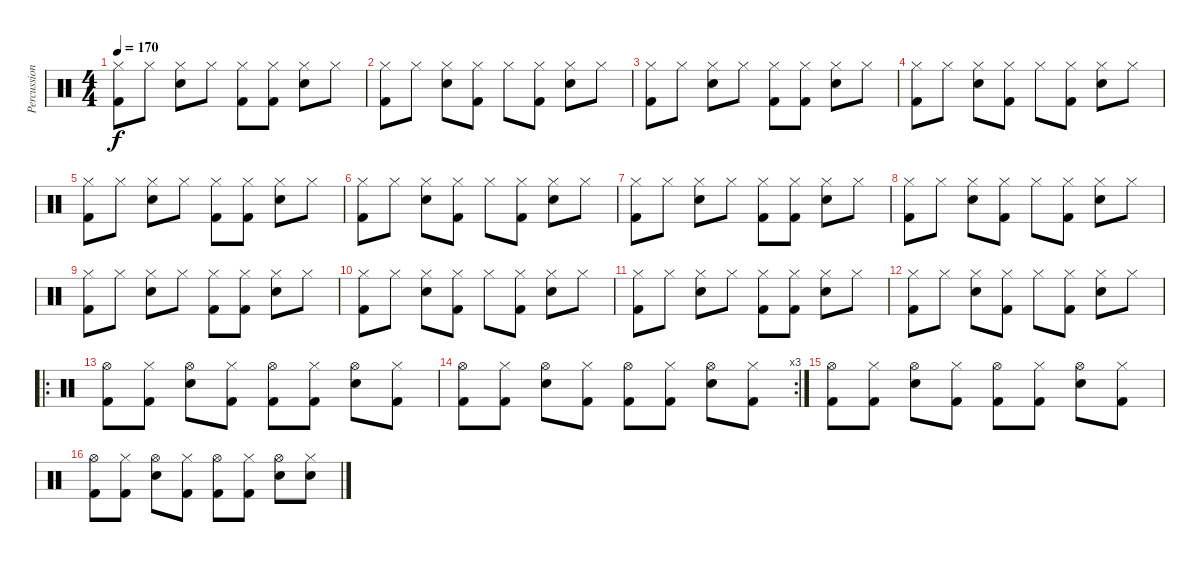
\track ("Percussion" "Percussion") {instrument percussion}
\staff {score}
\articulation defaults
\ts (4 4)
\tempo 170
\clef neutral
\ks c
("Hi-Hat (closed)" "Kick (hit) 2").8{dy f} "Hi-Hat (closed)".8 ("Hi-Hat (closed)" "Electric Snare (hit)").8 "Hi-Hat (closed)".8 ("Hi-Hat (closed)" "Kick (hit) 2").8 ("Hi-Hat (closed)" "Kick (hit) 2").8 ("Hi-Hat (closed)" "Electric Snare (hit)").8 "Hi-Hat (closed)".8 |
("Hi-Hat (closed)" "Kick (hit) 2").8 "Hi-Hat (closed)".8 ("Hi-Hat (closed)" "Electric Snare (hit)").8 ("Hi-Hat (closed)" "Kick (hit) 2").8 "Hi-Hat (closed)".8 ("Hi-Hat (closed)" "Kick (hit) 2").8 ("Hi-Hat (closed)" "Electric Snare (hit)").8 "Hi-Hat (closed)".8 |
("Hi-Hat (closed)" "Kick (hit) 2").8 "Hi-Hat (closed)".8 ("Hi-Hat (closed)" "Electric Snare (hit)").8 "Hi-Hat (closed)".8 ("Hi-Hat (closed)" "Kick (hit) 2").8 ("Hi-Hat (closed)" "Kick (hit) 2").8 ("Hi-Hat (closed)" "Electric Snare (hit)").8 "Hi-Hat (closed)".8 |
("Hi-Hat (closed)" "Kick (hit) 2").8 "Hi-Hat (closed)".8 ("Hi-Hat (closed)" "Electric Snare (hit)").8 ("Hi-Hat (closed)" "Kick (hit) 2").8 "Hi-Hat (closed)".8 ("Hi-Hat (closed)" "Kick (hit) 2").8 ("Hi-Hat (closed)" "Electric Snare (hit)").8 "Hi-Hat (closed)".8 |
("Hi-Hat (closed)" "Kick (hit) 2").8 "Hi-Hat (closed)".8 ("Hi-Hat (closed)" "Electric Snare (hit)").8 "Hi-Hat (closed)".8 ("Hi-Hat (closed)" "Kick (hit) 2").8 ("Hi-Hat (closed)" "Kick (hit) 2").8 ("Hi-Hat (closed)" "Electric Snare (hit)").8 "Hi-Hat (closed)".8 |
("Hi-Hat (closed)" "Kick (hit) 2").8 "Hi-Hat (closed)".8 ("Hi-Hat (closed)" "Electric Snare (hit)").8 ("Hi-Hat (closed)" "Kick (hit) 2").8 "Hi-Hat (closed)".8 ("Hi-Hat (closed)" "Kick (hit) 2").8 ("Hi-Hat (closed)" "Electric Snare (hit)").8 "Hi-Hat (closed)".8 |
("Hi-Hat (closed)" "Kick (hit) 2").8 "Hi-Hat (closed)".8 ("Hi-Hat (closed)" "Electric Snare (hit)").8 "Hi-Hat (closed)".8 ("Hi-Hat (closed)" "Kick (hit) 2").8 ("Hi-Hat (closed)" "Kick (hit) 2").8 ("Hi-Hat (closed)" "Electric Snare (hit)").8 "Hi-Hat (closed)".8 |
("Hi-Hat (closed)" "Kick (hit) 2").8 "Hi-Hat (closed)".8 ("Hi-Hat (closed)" "Electric Snare (hit)").8 ("Hi-Hat (closed)" "Kick (hit) 2").8 "Hi-Hat (closed)".8 ("Hi-Hat (closed)" "Kick (hit) 2").8 ("Hi-Hat (closed)" "Electric Snare (hit)").8 "Hi-Hat (closed)".8 |
("Hi-Hat (closed)" "Kick (hit) 2").8 "Hi-Hat (closed)".8 ("Hi-Hat (closed)" "Electric Snare (hit)").8 "Hi-Hat (closed)".8 ("Hi-Hat (closed)" "Kick (hit) 2").8 ("Hi-Hat (closed)" "Kick (hit) 2").8 ("Hi-Hat (closed)" "Electric Snare (hit)").8 "Hi-Hat (closed)".8 |
("Hi-Hat (closed)" "Kick (hit) 2").8 "Hi-Hat (closed)".8 ("Hi-Hat (closed)" "Electric Snare (hit)").8 ("Hi-Hat (closed)" "Kick (hit) 2").8 "Hi-Hat (closed)".8 ("Hi-Hat (closed)" "Kick (hit) 2").8 ("Hi-Hat (closed)" "Electric Snare (hit)").8 "Hi-Hat (closed)".8 |
("Hi-Hat (closed)" "Kick (hit) 2").8 "Hi-Hat (closed)".8 ("Hi-Hat (closed)" "Electric Snare (hit)").8 "Hi-Hat (closed)".8 ("Hi-Hat (closed)" "Kick (hit) 2").8 ("Hi-Hat (closed)" "Kick (hit) 2").8 ("Hi-Hat (closed)" "Electric Snare (hit)").8 "Hi-Hat (closed)".8 |
("Hi-Hat (closed)" "Kick (hit) 2").8 "Hi-Hat (closed)".8 ("Hi-Hat (closed)" "Electric Snare (hit)").8 ("Hi-Hat (closed)" "Kick (hit) 2").8 "Hi-Hat (closed)".8 ("Hi-Hat (closed)" "Kick (hit) 2").8 ("Hi-Hat (closed)" "Electric Snare (hit)").8 "Hi-Hat (closed)".8 |
\ro
("Hi-Hat (open)" "Kick (hit) 2").8 ("Hi-Hat (closed)" "Kick (hit) 2").8 ("Hi-Hat (open)" "Electric Snare (hit)").8 ("Hi-Hat (closed)" "Kick (hit) 2").8 ("Hi-Hat (open)" "Kick (hit) 2").8 ("Hi-Hat (closed)" "Kick (hit) 2").8 ("Hi-Hat (open)" "Electric Snare (hit)").8 ("Hi-Hat (closed)" "Kick (hit) 2").8 |
\rc 3
("Hi-Hat (open)" "Kick (hit) 2").8 ("Hi-Hat (closed)" "Kick (hit) 2").8 ("Hi-Hat (open)" "Electric Snare (hit)").8 ("Hi-Hat (closed)" "Kick (hit) 2").8 ("Hi-Hat (open)" "Kick (hit) 2").8 ("Hi-Hat (closed)" "Kick (hit) 2").8 ("Hi-Hat (open)" "Electric Snare (hit)").8 ("Hi-Hat (closed)" "Kick (hit) 2").8 |
("Hi-Hat (open)" "Kick (hit) 2").8 ("Hi-Hat (closed)" "Kick (hit) 2").8 ("Hi-Hat (open)" "Electric Snare (hit)").8 ("Hi-Hat (closed)" "Kick (hit) 2").8 ("Hi-Hat (open)" "Kick (hit) 2").8 ("Hi-Hat (closed)" "Kick (hit) 2").8 ("Hi-Hat (open)" "Electric Snare (hit)").8 ("Hi-Hat (closed)" "Kick (hit) 2").8 |
("Hi-Hat (open)" "Kick (hit) 2").8 ("Hi-Hat (closed)" "Kick (hit) 2").8 ("Hi-Hat (open)" "Electric Snare (hit)").8 ("Hi-Hat (closed)" "Kick (hit) 2").8 ("Hi-Hat (open)" "Kick (hit) 2").8 ("Hi-Hat (closed)" "Kick (hit) 2").8 ("Hi-Hat (open)" "Electric Snare (hit)").8 ("Hi-Hat (closed)" "Snare (hit)").8
